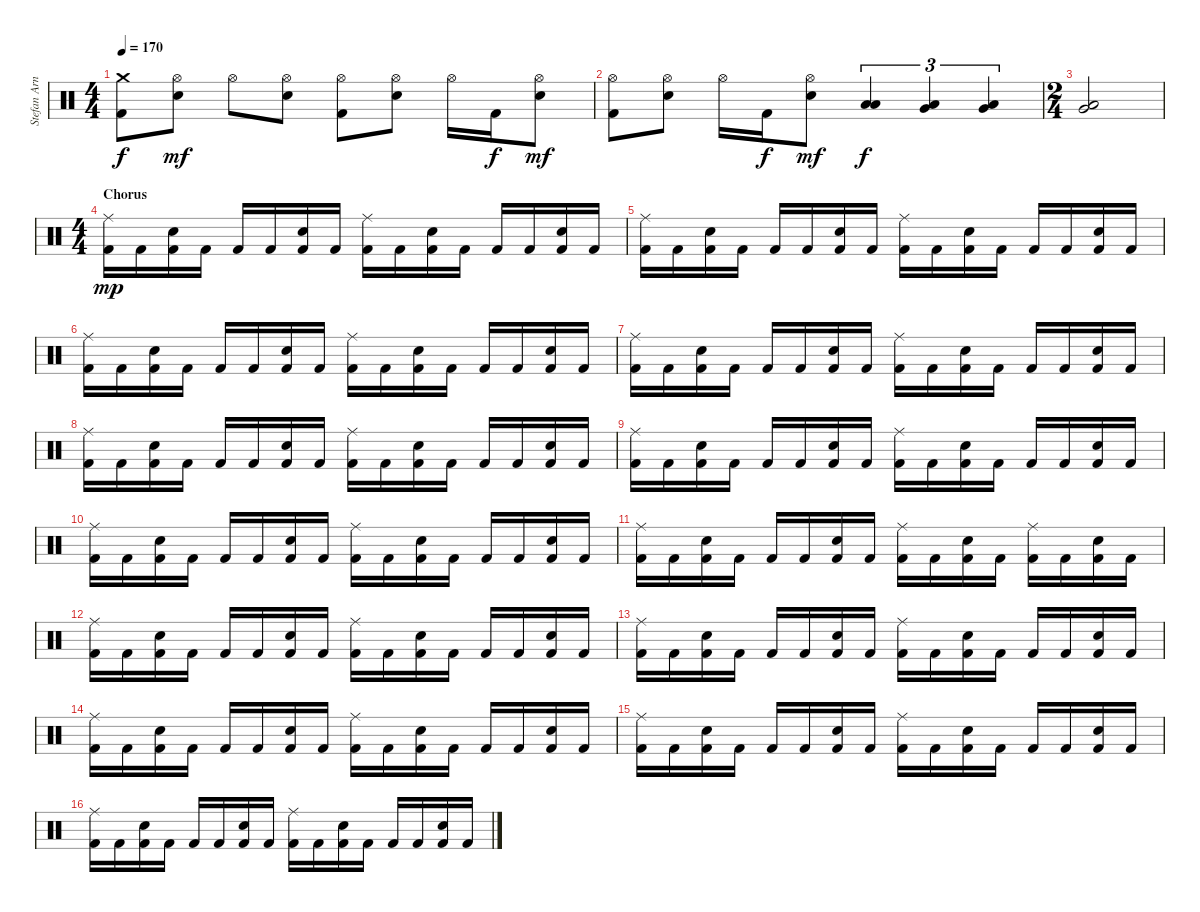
\track ("Stefan Arnold" "Stefan Arn") {instrument percussion}
\staff {score}
\articulation defaults
\ts (4 4)
\tempo 170
\clef neutral
\ks c
("Crash medium (hit)" "Kick (hit) 2").8{dy f} ("Hi-Hat (open)" "Electric Snare (hit)").8{dy mf} "Hi-Hat (open)".8 ("Hi-Hat (open)" "Electric Snare (hit)").8 ("Hi-Hat (open)" "Kick (hit) 2").8 ("Hi-Hat (open)" "Electric Snare (hit)").8 "Hi-Hat (open)".16 "Kick (hit) 2".16{dy f} ("Hi-Hat (open)" "Electric Snare (hit)").8{dy mf} |
("Hi-Hat (open)" "Kick (hit) 2").8 ("Hi-Hat (open)" "Electric Snare (hit)").8 "Hi-Hat (open)".16 "Kick (hit) 2".16{dy f} ("Hi-Hat (open)" "Electric Snare (hit)").8{dy mf} ("Low Tom (hit)" "Low Tom (hit)").4{tu (3 2) dy f} ("Low Tom (hit)" "Very Low Tom (hit)").4{tu (3 2)} ("Very Low Tom (hit)" "Low Floor Tom (hit)").4{tu (3 2)} |
\ts (2 4)
("Very Low Tom (hit)" "Low Floor Tom (hit)").2 |
\ts (4 4)
\section ("" "Chorus")
("Ride (middle)" "Kick (hit) 2").16{dy mp} "Kick (hit) 2".16 ("Electric Snare (hit)" "Kick (hit) 2").16 "Kick (hit) 2".16 "Kick (hit) 2".16 "Kick (hit) 2".16 ("Electric Snare (hit)" "Kick (hit) 2").16 "Kick (hit) 2".16 ("Ride (middle)" "Kick (hit) 2").16 "Kick (hit) 2".16 ("Electric Snare (hit)" "Kick (hit) 2").16 "Kick (hit) 2".16 "Kick (hit) 2".16 "Kick (hit) 2".16 ("Electric Snare (hit)" "Kick (hit) 2").16 "Kick (hit) 2".16 |
("Ride (middle)" "Kick (hit) 2").16 "Kick (hit) 2".16 ("Electric Snare (hit)" "Kick (hit) 2").16 "Kick (hit) 2".16 "Kick (hit) 2".16 "Kick (hit) 2".16 ("Electric Snare (hit)" "Kick (hit) 2").16 "Kick (hit) 2".16 ("Ride (middle)" "Kick (hit) 2").16 "Kick (hit) 2".16 ("Electric Snare (hit)" "Kick (hit) 2").16 "Kick (hit) 2".16 "Kick (hit) 2".16 "Kick (hit) 2".16 ("Electric Snare (hit)" "Kick (hit) 2").16 "Kick (hit) 2".16 |
("Ride (middle)" "Kick (hit) 2").16 "Kick (hit) 2".16 ("Electric Snare (hit)" "Kick (hit) 2").16 "Kick (hit) 2".16 "Kick (hit) 2".16 "Kick (hit) 2".16 ("Electric Snare (hit)" "Kick (hit) 2").16 "Kick (hit) 2".16 ("Ride (middle)" "Kick (hit) 2").16 "Kick (hit) 2".16 ("Electric Snare (hit)" "Kick (hit) 2").16 "Kick (hit) 2".16 "Kick (hit) 2".16 "Kick (hit) 2".16 ("Electric Snare (hit)" "Kick (hit) 2").16 "Kick (hit) 2".16 |
("Ride (middle)" "Kick (hit) 2").16 "Kick (hit) 2".16 ("Electric Snare (hit)" "Kick (hit) 2").16 "Kick (hit) 2".16 "Kick (hit) 2".16 "Kick (hit) 2".16 ("Electric Snare (hit)" "Kick (hit) 2").16 "Kick (hit) 2".16 ("Ride (middle)" "Kick (hit) 2").16 "Kick (hit) 2".16 ("Electric Snare (hit)" "Kick (hit) 2").16 "Kick (hit) 2".16 "Kick (hit) 2".16 "Kick (hit) 2".16 ("Electric Snare (hit)" "Kick (hit) 2").16 "Kick (hit) 2".16 |
("Ride (middle)" "Kick (hit) 2").16 "Kick (hit) 2".16 ("Electric Snare (hit)" "Kick (hit) 2").16 "Kick (hit) 2".16 "Kick (hit) 2".16 "Kick (hit) 2".16 ("Electric Snare (hit)" "Kick (hit) 2").16 "Kick (hit) 2".16 ("Ride (middle)" "Kick (hit) 2").16 "Kick (hit) 2".16 ("Electric Snare (hit)" "Kick (hit) 2").16 "Kick (hit) 2".16 "Kick (hit) 2".16 "Kick (hit) 2".16 ("Electric Snare (hit)" "Kick (hit) 2").16 "Kick (hit) 2".16 |
("Ride (middle)" "Kick (hit) 2").16 "Kick (hit) 2".16 ("Electric Snare (hit)" "Kick (hit) 2").16 "Kick (hit) 2".16 "Kick (hit) 2".16 "Kick (hit) 2".16 ("Electric Snare (hit)" "Kick (hit) 2").16 "Kick (hit) 2".16 ("Ride (middle)" "Kick (hit) 2").16 "Kick (hit) 2".16 ("Electric Snare (hit)" "Kick (hit) 2").16 "Kick (hit) 2".16 "Kick (hit) 2".16 "Kick (hit) 2".16 ("Electric Snare (hit)" "Kick (hit) 2").16 "Kick (hit) 2".16 |
("Ride (middle)" "Kick (hit) 2").16 "Kick (hit) 2".16 ("Electric Snare (hit)" "Kick (hit) 2").16 "Kick (hit) 2".16 "Kick (hit) 2".16 "Kick (hit) 2".16 ("Electric Snare (hit)" "Kick (hit) 2").16 "Kick (hit) 2".16 ("Ride (middle)" "Kick (hit) 2").16 "Kick (hit) 2".16 ("Electric Snare (hit)" "Kick (hit) 2").16 "Kick (hit) 2".16 "Kick (hit) 2".16 "Kick (hit) 2".16 ("Electric Snare (hit)" "Kick (hit) 2").16 "Kick (hit) 2".16 |
("Ride (middle)" "Kick (hit) 2").16 "Kick (hit) 2".16 ("Electric Snare (hit)" "Kick (hit) 2").16 "Kick (hit) 2".16 "Kick (hit) 2".16 "Kick (hit) 2".16 ("Electric Snare (hit)" "Kick (hit) 2").16 "Kick (hit) 2".16 ("Ride (middle)" "Kick (hit) 2").16 "Kick (hit) 2".16 ("Electric Snare (hit)" "Kick (hit) 2").16 "Kick (hit) 2".16 ("Ride (middle)" "Kick (hit) 2").16 "Kick (hit) 2".16 ("Electric Snare (hit)" "Kick (hit) 2").16 "Kick (hit) 2".16 |
("Ride (middle)" "Kick (hit) 2").16 "Kick (hit) 2".16 ("Electric Snare (hit)" "Kick (hit) 2").16 "Kick (hit) 2".16 "Kick (hit) 2".16 "Kick (hit) 2".16 ("Electric Snare (hit)" "Kick (hit) 2").16 "Kick (hit) 2".16 ("Ride (middle)" "Kick (hit) 2").16 "Kick (hit) 2".16 ("Electric Snare (hit)" "Kick (hit) 2").16 "Kick (hit) 2".16 "Kick (hit) 2".16 "Kick (hit) 2".16 ("Electric Snare (hit)" "Kick (hit) 2").16 "Kick (hit) 2".16 |
("Ride (middle)" "Kick (hit) 2").16 "Kick (hit) 2".16 ("Electric Snare (hit)" "Kick (hit) 2").16 "Kick (hit) 2".16 "Kick (hit) 2".16 "Kick (hit) 2".16 ("Electric Snare (hit)" "Kick (hit) 2").16 "Kick (hit) 2".16 ("Ride (middle)" "Kick (hit) 2").16 "Kick (hit) 2".16 ("Electric Snare (hit)" "Kick (hit) 2").16 "Kick (hit) 2".16 "Kick (hit) 2".16 "Kick (hit) 2".16 ("Electric Snare (hit)" "Kick (hit) 2").16 "Kick (hit) 2".16 |
("Ride (middle)" "Kick (hit) 2").16 "Kick (hit) 2".16 ("Electric Snare (hit)" "Kick (hit) 2").16 "Kick (hit) 2".16 "Kick (hit) 2".16 "Kick (hit) 2".16 ("Electric Snare (hit)" "Kick (hit) 2").16 "Kick (hit) 2".16 ("Ride (middle)" "Kick (hit) 2").16 "Kick (hit) 2".16 ("Electric Snare (hit)" "Kick (hit) 2").16 "Kick (hit) 2".16 "Kick (hit) 2".16 "Kick (hit) 2".16 ("Electric Snare (hit)" "Kick (hit) 2").16 "Kick (hit) 2".16 |
("Ride (middle)" "Kick (hit) 2").16 "Kick (hit) 2".16 ("Electric Snare (hit)" "Kick (hit) 2").16 "Kick (hit) 2".16 "Kick (hit) 2".16 "Kick (hit) 2".16 ("Electric Snare (hit)" "Kick (hit) 2").16 "Kick (hit) 2".16 ("Ride (middle)" "Kick (hit) 2").16 "Kick (hit) 2".16 ("Electric Snare (hit)" "Kick (hit) 2").16 "Kick (hit) 2".16 "Kick (hit) 2".16 "Kick (hit) 2".16 ("Electric Snare (hit)" "Kick (hit) 2").16 "Kick (hit) 2".16 |
("Ride (middle)" "Kick (hit) 2").16 "Kick (hit) 2".16 ("Electric Snare (hit)" "Kick (hit) 2").16 "Kick (hit) 2".16 "Kick (hit) 2".16 "Kick (hit) 2".16 ("Electric Snare (hit)" "Kick (hit) 2").16 "Kick (hit) 2".16 ("Ride (middle)" "Kick (hit) 2").16 "Kick (hit) 2".16 ("Electric Snare (hit)" "Kick (hit) 2").16 "Kick (hit) 2".16 "Kick (hit) 2".16 "Kick (hit) 2".16 ("Electric Snare (hit)" "Kick (hit) 2").16 "Kick (hit) 2".16
